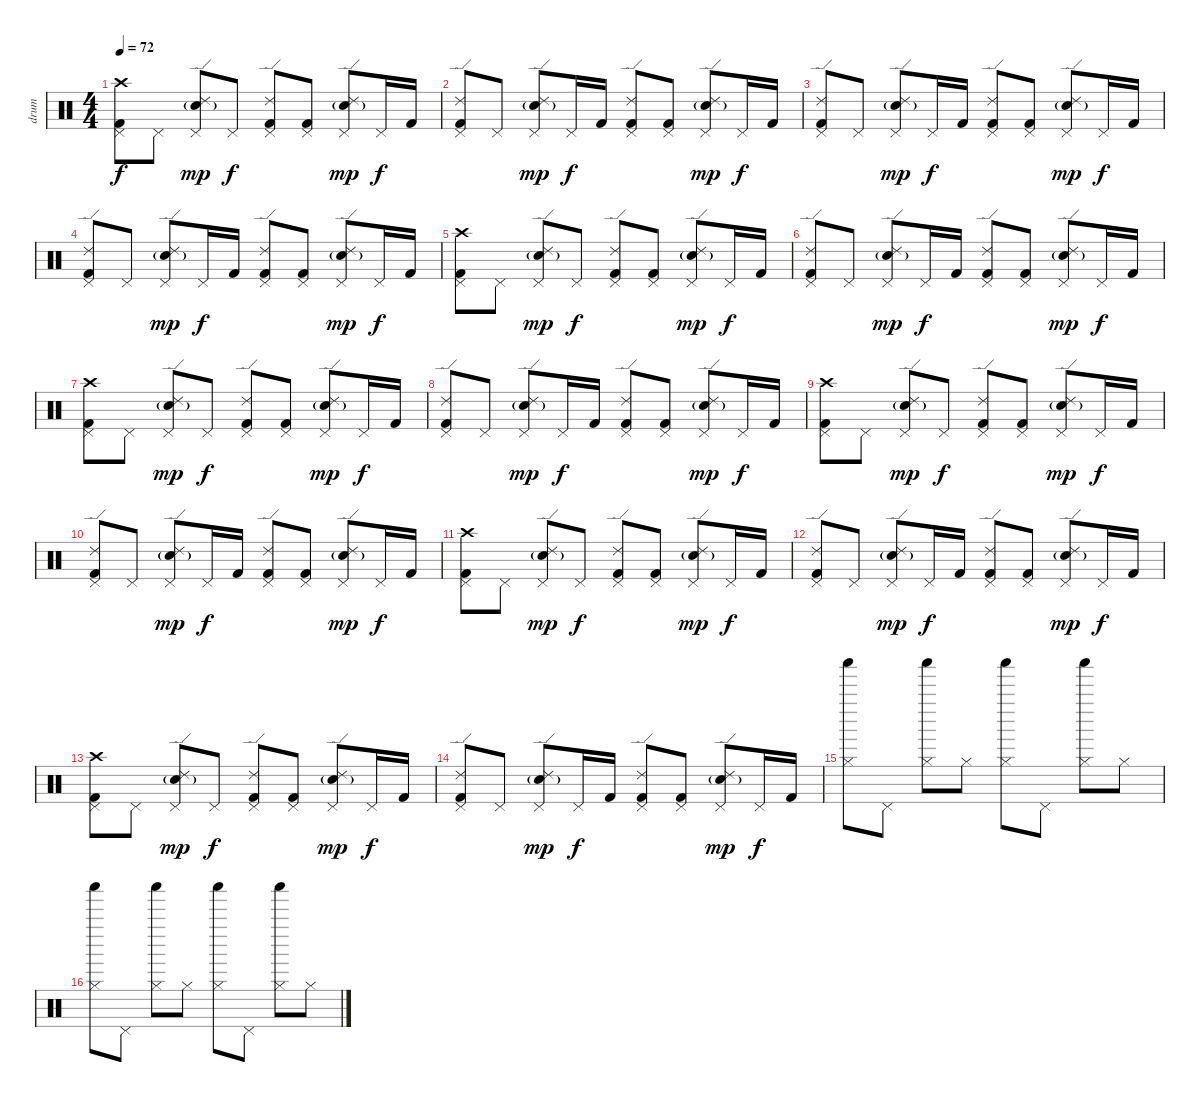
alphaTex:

\track ("drum" "drum") {instrument percussion}
\staff {score}
\articulation defaults
\ts (4 4)
\tempo 72
\clef neutral
\ks c
("Crash high (hit)" "Kick (hit) 2" "Pedal Hi-Hat (hit)").8{dy f} "Pedal Hi-Hat (hit)".8 ("Ride (edge) 2" "Electric Snare (hit)"{g} "Pedal Hi-Hat (hit)").8{dy mp} "Pedal Hi-Hat (hit)".8{dy f} ("Ride (edge) 2" "Kick (hit) 2" "Pedal Hi-Hat (hit)").8 ("Kick (hit) 2" "Pedal Hi-Hat (hit)").8 ("Ride (edge) 2" "Electric Snare (hit)"{g} "Pedal Hi-Hat (hit)").8{dy mp} "Pedal Hi-Hat (hit)".16{dy f} "Kick (hit) 2".16 |
("Ride (edge) 2" "Kick (hit) 2" "Pedal Hi-Hat (hit)").8 "Pedal Hi-Hat (hit)".8 ("Ride (edge) 2" "Electric Snare (hit)"{g} "Pedal Hi-Hat (hit)").8{dy mp} "Pedal Hi-Hat (hit)".16{dy f} "Kick (hit) 2".16 ("Ride (edge) 2" "Kick (hit) 2" "Pedal Hi-Hat (hit)").8 ("Kick (hit) 2" "Pedal Hi-Hat (hit)").8 ("Ride (edge) 2" "Electric Snare (hit)"{g} "Pedal Hi-Hat (hit)").8{dy mp} "Pedal Hi-Hat (hit)".16{dy f} "Kick (hit) 2".16 |
("Ride (edge) 2" "Kick (hit) 2" "Pedal Hi-Hat (hit)").8 "Pedal Hi-Hat (hit)".8 ("Ride (edge) 2" "Electric Snare (hit)"{g} "Pedal Hi-Hat (hit)").8{dy mp} "Pedal Hi-Hat (hit)".16{dy f} "Kick (hit) 2".16 ("Ride (edge) 2" "Kick (hit) 2" "Pedal Hi-Hat (hit)").8 ("Kick (hit) 2" "Pedal Hi-Hat (hit)").8 ("Ride (edge) 2" "Electric Snare (hit)"{g} "Pedal Hi-Hat (hit)").8{dy mp} "Pedal Hi-Hat (hit)".16{dy f} "Kick (hit) 2".16 |
("Ride (edge) 2" "Kick (hit) 2" "Pedal Hi-Hat (hit)").8 "Pedal Hi-Hat (hit)".8 ("Ride (edge) 2" "Electric Snare (hit)"{g} "Pedal Hi-Hat (hit)").8{dy mp} "Pedal Hi-Hat (hit)".16{dy f} "Kick (hit) 2".16 ("Ride (edge) 2" "Kick (hit) 2" "Pedal Hi-Hat (hit)").8 ("Kick (hit) 2" "Pedal Hi-Hat (hit)").8 ("Ride (edge) 2" "Electric Snare (hit)"{g} "Pedal Hi-Hat (hit)").8{dy mp} "Pedal Hi-Hat (hit)".16{dy f} "Kick (hit) 2".16 |
("Crash high (hit)" "Kick (hit) 2" "Pedal Hi-Hat (hit)").8 "Pedal Hi-Hat (hit)".8 ("Ride (edge) 2" "Electric Snare (hit)"{g} "Pedal Hi-Hat (hit)").8{dy mp} "Pedal Hi-Hat (hit)".8{dy f} ("Ride (edge) 2" "Kick (hit) 2" "Pedal Hi-Hat (hit)").8 ("Kick (hit) 2" "Pedal Hi-Hat (hit)").8 ("Ride (edge) 2" "Electric Snare (hit)"{g} "Pedal Hi-Hat (hit)").8{dy mp} "Pedal Hi-Hat (hit)".16{dy f} "Kick (hit) 2".16 |
("Ride (edge) 2" "Kick (hit) 2" "Pedal Hi-Hat (hit)").8 "Pedal Hi-Hat (hit)".8 ("Ride (edge) 2" "Electric Snare (hit)"{g} "Pedal Hi-Hat (hit)").8{dy mp} "Pedal Hi-Hat (hit)".16{dy f} "Kick (hit) 2".16 ("Ride (edge) 2" "Kick (hit) 2" "Pedal Hi-Hat (hit)").8 ("Kick (hit) 2" "Pedal Hi-Hat (hit)").8 ("Ride (edge) 2" "Electric Snare (hit)"{g} "Pedal Hi-Hat (hit)").8{dy mp} "Pedal Hi-Hat (hit)".16{dy f} "Kick (hit) 2".16 |
("Crash high (hit)" "Kick (hit) 2" "Pedal Hi-Hat (hit)").8 "Pedal Hi-Hat (hit)".8 ("Ride (edge) 2" "Electric Snare (hit)"{g} "Pedal Hi-Hat (hit)").8{dy mp} "Pedal Hi-Hat (hit)".8{dy f} ("Ride (edge) 2" "Kick (hit) 2" "Pedal Hi-Hat (hit)").8 ("Kick (hit) 2" "Pedal Hi-Hat (hit)").8 ("Ride (edge) 2" "Electric Snare (hit)"{g} "Pedal Hi-Hat (hit)").8{dy mp} "Pedal Hi-Hat (hit)".16{dy f} "Kick (hit) 2".16 |
("Ride (edge) 2" "Kick (hit) 2" "Pedal Hi-Hat (hit)").8 "Pedal Hi-Hat (hit)".8 ("Ride (edge) 2" "Electric Snare (hit)"{g} "Pedal Hi-Hat (hit)").8{dy mp} "Pedal Hi-Hat (hit)".16{dy f} "Kick (hit) 2".16 ("Ride (edge) 2" "Kick (hit) 2" "Pedal Hi-Hat (hit)").8 ("Kick (hit) 2" "Pedal Hi-Hat (hit)").8 ("Ride (edge) 2" "Electric Snare (hit)"{g} "Pedal Hi-Hat (hit)").8{dy mp} "Pedal Hi-Hat (hit)".16{dy f} "Kick (hit) 2".16 |
("Crash high (hit)" "Kick (hit) 2" "Pedal Hi-Hat (hit)").8 "Pedal Hi-Hat (hit)".8 ("Ride (edge) 2" "Electric Snare (hit)"{g} "Pedal Hi-Hat (hit)").8{dy mp} "Pedal Hi-Hat (hit)".8{dy f} ("Ride (edge) 2" "Kick (hit) 2" "Pedal Hi-Hat (hit)").8 ("Kick (hit) 2" "Pedal Hi-Hat (hit)").8 ("Ride (edge) 2" "Electric Snare (hit)"{g} "Pedal Hi-Hat (hit)").8{dy mp} "Pedal Hi-Hat (hit)".16{dy f} "Kick (hit) 2".16 |
("Ride (edge) 2" "Kick (hit) 2" "Pedal Hi-Hat (hit)").8 "Pedal Hi-Hat (hit)".8 ("Ride (edge) 2" "Electric Snare (hit)"{g} "Pedal Hi-Hat (hit)").8{dy mp} "Pedal Hi-Hat (hit)".16{dy f} "Kick (hit) 2".16 ("Ride (edge) 2" "Kick (hit) 2" "Pedal Hi-Hat (hit)").8 ("Kick (hit) 2" "Pedal Hi-Hat (hit)").8 ("Ride (edge) 2" "Electric Snare (hit)"{g} "Pedal Hi-Hat (hit)").8{dy mp} "Pedal Hi-Hat (hit)".16{dy f} "Kick (hit) 2".16 |
("Crash high (hit)" "Kick (hit) 2" "Pedal Hi-Hat (hit)").8 "Pedal Hi-Hat (hit)".8 ("Ride (edge) 2" "Electric Snare (hit)"{g} "Pedal Hi-Hat (hit)").8{dy mp} "Pedal Hi-Hat (hit)".8{dy f} ("Ride (edge) 2" "Kick (hit) 2" "Pedal Hi-Hat (hit)").8 ("Kick (hit) 2" "Pedal Hi-Hat (hit)").8 ("Ride (edge) 2" "Electric Snare (hit)"{g} "Pedal Hi-Hat (hit)").8{dy mp} "Pedal Hi-Hat (hit)".16{dy f} "Kick (hit) 2".16 |
("Ride (edge) 2" "Kick (hit) 2" "Pedal Hi-Hat (hit)").8 "Pedal Hi-Hat (hit)".8 ("Ride (edge) 2" "Electric Snare (hit)"{g} "Pedal Hi-Hat (hit)").8{dy mp} "Pedal Hi-Hat (hit)".16{dy f} "Kick (hit) 2".16 ("Ride (edge) 2" "Kick (hit) 2" "Pedal Hi-Hat (hit)").8 ("Kick (hit) 2" "Pedal Hi-Hat (hit)").8 ("Ride (edge) 2" "Electric Snare (hit)"{g} "Pedal Hi-Hat (hit)").8{dy mp} "Pedal Hi-Hat (hit)".16{dy f} "Kick (hit) 2".16 |
("Crash high (hit)" "Kick (hit) 2" "Pedal Hi-Hat (hit)").8 "Pedal Hi-Hat (hit)".8 ("Ride (edge) 2" "Electric Snare (hit)"{g} "Pedal Hi-Hat (hit)").8{dy mp} "Pedal Hi-Hat (hit)".8{dy f} ("Ride (edge) 2" "Kick (hit) 2" "Pedal Hi-Hat (hit)").8 ("Kick (hit) 2" "Pedal Hi-Hat (hit)").8 ("Ride (edge) 2" "Electric Snare (hit)"{g} "Pedal Hi-Hat (hit)").8{dy mp} "Pedal Hi-Hat (hit)".16{dy f} "Kick (hit) 2".16 |
("Ride (edge) 2" "Kick (hit) 2" "Pedal Hi-Hat (hit)").8 "Pedal Hi-Hat (hit)".8 ("Ride (edge) 2" "Electric Snare (hit)"{g} "Pedal Hi-Hat (hit)").8{dy mp} "Pedal Hi-Hat (hit)".16{dy f} "Kick (hit) 2".16 ("Ride (edge) 2" "Kick (hit) 2" "Pedal Hi-Hat (hit)").8 ("Kick (hit) 2" "Pedal Hi-Hat (hit)").8 ("Ride (edge) 2" "Electric Snare (hit)"{g} "Pedal Hi-Hat (hit)").8{dy mp} "Pedal Hi-Hat (hit)".16{dy f} "Kick (hit) 2".16 |
("Hi-Hat (closed)" "Shaker (hit)").8 "Pedal Hi-Hat (hit)".8 ("Hi-Hat (closed)" "Shaker (hit)").8 "Hi-Hat (closed)".8 ("Hi-Hat (closed)" "Shaker (hit)").8 "Pedal Hi-Hat (hit)".8 ("Hi-Hat (closed)" "Shaker (hit)").8 "Hi-Hat (closed)".8 |
("Hi-Hat (closed)" "Shaker (hit)").8 "Pedal Hi-Hat (hit)".8 ("Hi-Hat (closed)" "Shaker (hit)").8 "Hi-Hat (closed)".8 ("Hi-Hat (closed)" "Shaker (hit)").8 "Pedal Hi-Hat (hit)".8 ("Hi-Hat (closed)" "Shaker (hit)").8 "Hi-Hat (closed)".8
